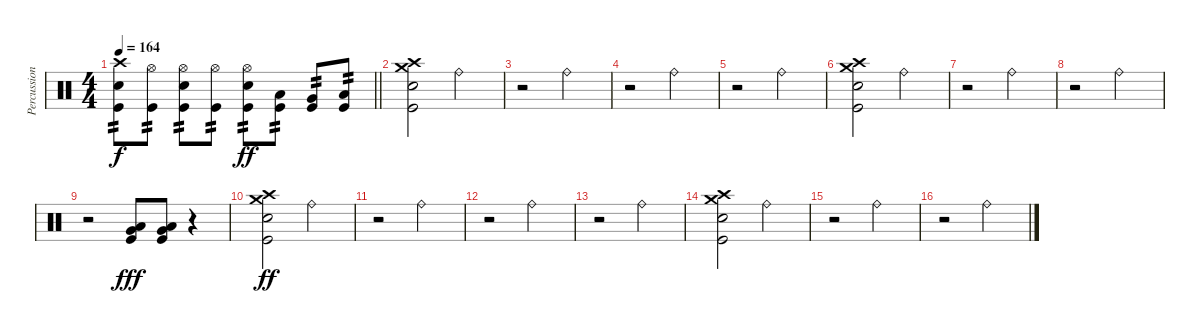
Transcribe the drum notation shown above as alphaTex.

\track ("Percussion" "Percussion") {instrument percussion}
\staff {score}
\articulation defaults
\ts (4 4)
\tempo 164
\clef neutral
\barLineRight lightlight
\ks c
("Crash high (hit)" "Electric Snare (hit)" "Kick (hit)").8{tp 2 dy f} ("Hi-Hat (open)" "Kick (hit)").8{tp 2} ("Hi-Hat (open)" "Electric Snare (hit)" "Kick (hit)").8{tp 2} ("Hi-Hat (open)" "Kick (hit)").8{tp 2} ("Hi-Hat (open)" "Electric Snare (hit)" "Kick (hit)").8{tp 2 dy ff} ("Low Tom (hit)" "Kick (hit)").8{tp 2} ("Very Low Tom (hit)" "Kick (hit)").8{tp 2} ("Low Floor Tom (hit)" "Kick (hit)").8{tp 2} |
("Crash high (hit)" "Crash medium (hit)" "Electric Snare (hit)" "Kick (hit)").2 "Ride (bell)".2 |
r.2 "Ride (bell)".2 |
r.2 "Ride (bell)".2 |
r.2 "Ride (bell)".2 |
("Crash high (hit)" "Crash medium (hit)" "Electric Snare (hit)" "Kick (hit)").2 "Ride (bell)".2 |
r.2 "Ride (bell)".2 |
r.2 "Ride (bell)".2 |
r.2 ("Very Low Tom (hit)" "Low Floor Tom (hit)" "Kick (hit)").8{dy fff} ("Very Low Tom (hit)" "Low Floor Tom (hit)" "Kick (hit)").8 r.4 |
("Crash high (hit)" "Crash medium (hit)" "Electric Snare (hit)" "Kick (hit)").2{dy ff} "Ride (bell)".2 |
r.2 "Ride (bell)".2 |
r.2 "Ride (bell)".2 |
r.2 "Ride (bell)".2 |
("Crash high (hit)" "Crash medium (hit)" "Electric Snare (hit)" "Kick (hit)").2 "Ride (bell)".2 |
r.2 "Ride (bell)".2 |
r.2 "Ride (bell)".2
